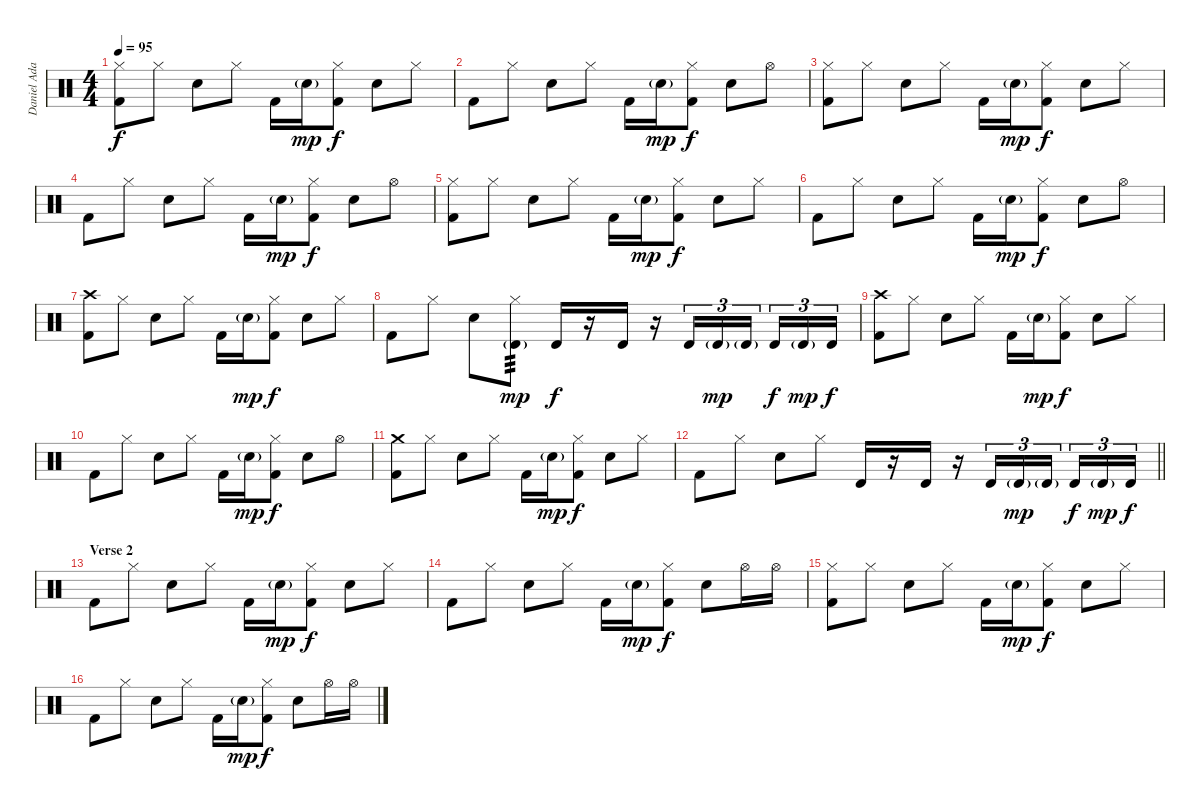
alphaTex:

\track ("Daniel Adair" "Daniel Ada") {instrument percussion}
\staff {score}
\articulation defaults
\ts (4 4)
\tempo 95
\clef neutral
\ks c
("Hi-Hat (closed)" "Kick (hit) 2").8{dy f} "Hi-Hat (closed)".8 "Electric Snare (hit)".8 "Hi-Hat (closed)".8 "Kick (hit) 2".16 "Electric Snare (hit)"{g}.16{dy mp} ("Hi-Hat (closed)" "Kick (hit) 2").8{dy f} "Electric Snare (hit)".8 "Hi-Hat (closed)".8 |
"Kick (hit) 2".8 "Hi-Hat (closed)".8 "Electric Snare (hit)".8 "Hi-Hat (closed)".8 "Kick (hit) 2".16 "Electric Snare (hit)"{g}.16{dy mp} ("Hi-Hat (closed)" "Kick (hit) 2").8{dy f} "Electric Snare (hit)".8 "Hi-Hat (open)".8 |
("Hi-Hat (closed)" "Kick (hit) 2").8 "Hi-Hat (closed)".8 "Electric Snare (hit)".8 "Hi-Hat (closed)".8 "Kick (hit) 2".16 "Electric Snare (hit)"{g}.16{dy mp} ("Hi-Hat (closed)" "Kick (hit) 2").8{dy f} "Electric Snare (hit)".8 "Hi-Hat (closed)".8 |
"Kick (hit) 2".8 "Hi-Hat (closed)".8 "Electric Snare (hit)".8 "Hi-Hat (closed)".8 "Kick (hit) 2".16 "Electric Snare (hit)"{g}.16{dy mp} ("Hi-Hat (closed)" "Kick (hit) 2").8{dy f} "Electric Snare (hit)".8 "Hi-Hat (open)".8 |
("Hi-Hat (closed)" "Kick (hit) 2").8 "Hi-Hat (closed)".8 "Electric Snare (hit)".8 "Hi-Hat (closed)".8 "Kick (hit) 2".16 "Electric Snare (hit)"{g}.16{dy mp} ("Hi-Hat (closed)" "Kick (hit) 2").8{dy f} "Electric Snare (hit)".8 "Hi-Hat (closed)".8 |
"Kick (hit) 2".8 "Hi-Hat (closed)".8 "Electric Snare (hit)".8 "Hi-Hat (closed)".8 "Kick (hit) 2".16 "Electric Snare (hit)"{g}.16{dy mp} ("Hi-Hat (closed)" "Kick (hit) 2").8{dy f} "Electric Snare (hit)".8 "Hi-Hat (open)".8 |
("Crash high (hit)" "Kick (hit) 2").8 "Hi-Hat (closed)".8 "Electric Snare (hit)".8 "Hi-Hat (closed)".8 "Kick (hit) 2".16 "Electric Snare (hit)"{g}.16{dy mp} ("Hi-Hat (closed)" "Kick (hit) 2").8{dy f} "Electric Snare (hit)".8 "Hi-Hat (closed)".8 |
"Kick (hit) 2".8 "Hi-Hat (closed)".8 "Electric Snare (hit)".8 ("Timbale high (hit)"{g} "Hi-Hat (closed)").8{tp 3 dy mp} "Timbale high (hit)".16{dy f} r.16 "Timbale high (hit)".16 r.16 "Timbale high (hit)".16{tu (3 2)} "Timbale high (hit)"{g}.16{tu (3 2) dy mp} "Timbale high (hit)"{g}.16{tu (3 2) beam splitsecondary} "Timbale high (hit)".16{tu (3 2) dy f} "Timbale high (hit)"{g}.16{tu (3 2) dy mp} "Timbale high (hit)".16{tu (3 2) dy f} |
("Crash high (hit)" "Kick (hit) 2").8 "Hi-Hat (closed)".8 "Electric Snare (hit)".8 "Hi-Hat (closed)".8 "Kick (hit) 2".16 "Electric Snare (hit)"{g}.16{dy mp} ("Hi-Hat (closed)" "Kick (hit) 2").8{dy f} "Electric Snare (hit)".8 "Hi-Hat (closed)".8 |
"Kick (hit) 2".8 "Hi-Hat (closed)".8 "Electric Snare (hit)".8 "Hi-Hat (closed)".8 "Kick (hit) 2".16 "Electric Snare (hit)"{g}.16{dy mp} ("Hi-Hat (closed)" "Kick (hit) 2").8{dy f} "Electric Snare (hit)".8 "Hi-Hat (open)".8 |
("Crash medium (hit)" "Kick (hit) 2").8 "Hi-Hat (closed)".8 "Electric Snare (hit)".8 "Hi-Hat (closed)".8 "Kick (hit) 2".16 "Electric Snare (hit)"{g}.16{dy mp} ("Hi-Hat (closed)" "Kick (hit) 2").8{dy f} "Electric Snare (hit)".8 "Hi-Hat (closed)".8 |
\barLineRight lightlight "Kick (hit) 2".8 "Hi-Hat (closed)".8 "Electric Snare (hit)".8 "Hi-Hat (closed)".8 "Timbale high (hit)".16
r.16 "Timbale high (hit)".16 r.16 "Timbale high (hit)".16{tu (3 2)} "Timbale high (hit)"{g}.16{tu (3 2) dy mp} "Timbale high (hit)"{g}.16{tu (3 2) beam splitsecondary} "Timbale high (hit)".16{tu (3 2) dy f} "Timbale high (hit)"{g}.16{tu (3 2) dy mp} "Timbale high (hit)".16{tu (3 2) dy f} |
\section ("" "Verse 2")
"Kick (hit) 2".8 "Hi-Hat (closed)".8 "Electric Snare (hit)".8 "Hi-Hat (closed)".8 "Kick (hit) 2".16 "Electric Snare (hit)"{g}.16{dy mp} ("Hi-Hat (closed)" "Kick (hit) 2").8{dy f} "Electric Snare (hit)".8 "Hi-Hat (closed)".8 |
"Kick (hit) 2".8 "Hi-Hat (closed)".8 "Electric Snare (hit)".8 "Hi-Hat (closed)".8 "Kick (hit) 2".16 "Electric Snare (hit)"{g}.16{dy mp} ("Hi-Hat (closed)" "Kick (hit) 2").8{dy f} "Electric Snare (hit)".8 "Hi-Hat (open)".16 "Hi-Hat (open)".16 |
("Hi-Hat (closed)" "Kick (hit) 2").8 "Hi-Hat (closed)".8 "Electric Snare (hit)".8 "Hi-Hat (closed)".8 "Kick (hit) 2".16 "Electric Snare (hit)"{g}.16{dy mp} ("Hi-Hat (closed)" "Kick (hit) 2").8{dy f} "Electric Snare (hit)".8 "Hi-Hat (closed)".8 |
"Kick (hit) 2".8 "Hi-Hat (closed)".8 "Electric Snare (hit)".8 "Hi-Hat (closed)".8 "Kick (hit) 2".16 "Electric Snare (hit)"{g}.16{dy mp} ("Hi-Hat (closed)" "Kick (hit) 2").8{dy f} "Electric Snare (hit)".8 "Hi-Hat (open)".16 "Hi-Hat (open)".16
